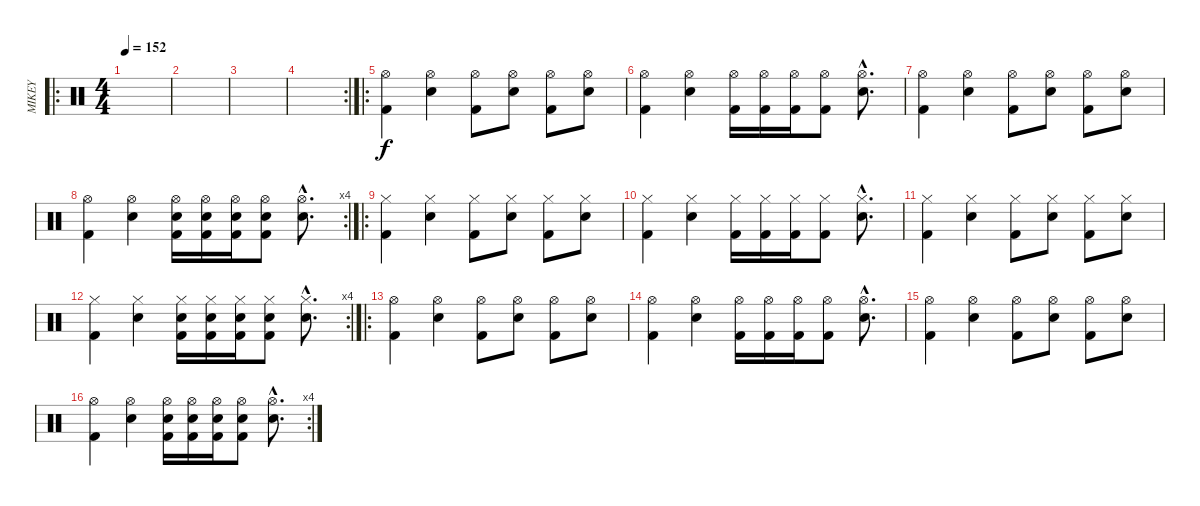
\track ("MIKEY" "MIKEY") {instrument percussion}
\staff {score}
\articulation defaults
\ro
\ts (4 4)
\tempo 152
\clef neutral
\ks c
|
|
|
\rc 2
|
\ro
("Hi-Hat (open)" "Kick (hit) 2").4 ("Hi-Hat (open)" "Electric Snare (hit)").4 ("Hi-Hat (open)" "Kick (hit) 2").8 ("Hi-Hat (open)" "Electric Snare (hit)").8 ("Hi-Hat (open)" "Kick (hit) 2").8 ("Hi-Hat (open)" "Electric Snare (hit)").8 |
("Hi-Hat (open)" "Kick (hit) 2").4 ("Hi-Hat (open)" "Electric Snare (hit)").4 ("Hi-Hat (open)" "Kick (hit) 2").16 ("Hi-Hat (open)" "Kick (hit) 2").16 ("Hi-Hat (open)" "Kick (hit) 2").16 ("Hi-Hat (open)" "Kick (hit) 2").8 ("Hi-Hat (open)"{hac} "Electric Snare (hit)"{hac}).8{d} |
("Hi-Hat (open)" "Kick (hit) 2").4 ("Hi-Hat (open)" "Electric Snare (hit)").4 ("Hi-Hat (open)" "Kick (hit) 2").8 ("Hi-Hat (open)" "Electric Snare (hit)").8 ("Hi-Hat (open)" "Kick (hit) 2").8 ("Hi-Hat (open)" "Electric Snare (hit)").8 |
\rc 4
("Hi-Hat (open)" "Kick (hit) 2").4 ("Hi-Hat (open)" "Electric Snare (hit)").4 ("Kick (hit) 2" "Hi-Hat (open)" "Electric Snare (hit)").16 ("Kick (hit) 2" "Hi-Hat (open)" "Electric Snare (hit)").16 ("Kick (hit) 2" "Hi-Hat (open)" "Electric Snare (hit)").16 ("Kick (hit) 2" "Hi-Hat (open)" "Electric Snare (hit)").8 ("Hi-Hat (open)"{hac} "Electric Snare (hit)"{hac}).8{d} |
\ro
("Hi-Hat (closed)" "Kick (hit) 2").4 ("Hi-Hat (closed)" "Electric Snare (hit)").4 ("Hi-Hat (closed)" "Kick (hit) 2").8 ("Hi-Hat (closed)" "Electric Snare (hit)").8 ("Hi-Hat (closed)" "Kick (hit) 2").8 ("Hi-Hat (closed)" "Electric Snare (hit)").8 |
("Hi-Hat (closed)" "Kick (hit) 2").4 ("Hi-Hat (closed)" "Electric Snare (hit)").4 ("Hi-Hat (closed)" "Kick (hit) 2").16 ("Hi-Hat (closed)" "Kick (hit) 2").16 ("Hi-Hat (closed)" "Kick (hit) 2").16 ("Hi-Hat (closed)" "Kick (hit) 2").8 ("Hi-Hat (closed)"{hac} "Electric Snare (hit)"{hac}).8{d} |
("Hi-Hat (closed)" "Kick (hit) 2").4 ("Hi-Hat (closed)" "Electric Snare (hit)").4 ("Hi-Hat (closed)" "Kick (hit) 2").8 ("Hi-Hat (closed)" "Electric Snare (hit)").8 ("Hi-Hat (closed)" "Kick (hit) 2").8 ("Hi-Hat (closed)" "Electric Snare (hit)").8 |
\rc 4
("Hi-Hat (closed)" "Kick (hit) 2").4 ("Hi-Hat (closed)" "Electric Snare (hit)").4 ("Kick (hit) 2" "Hi-Hat (closed)" "Electric Snare (hit)").16 ("Kick (hit) 2" "Hi-Hat (closed)" "Electric Snare (hit)").16 ("Kick (hit) 2" "Hi-Hat (closed)" "Electric Snare (hit)").16 ("Kick (hit) 2" "Hi-Hat (closed)" "Electric Snare (hit)").8 ("Hi-Hat (closed)"{hac} "Electric Snare (hit)"{hac}).8{d} |
\ro
("Hi-Hat (open)" "Kick (hit) 2").4 ("Hi-Hat (open)" "Electric Snare (hit)").4 ("Hi-Hat (open)" "Kick (hit) 2").8 ("Hi-Hat (open)" "Electric Snare (hit)").8 ("Hi-Hat (open)" "Kick (hit) 2").8 ("Hi-Hat (open)" "Electric Snare (hit)").8 |
("Hi-Hat (open)" "Kick (hit) 2").4 ("Hi-Hat (open)" "Electric Snare (hit)").4 ("Hi-Hat (open)" "Kick (hit) 2").16 ("Hi-Hat (open)" "Kick (hit) 2").16 ("Hi-Hat (open)" "Kick (hit) 2").16 ("Hi-Hat (open)" "Kick (hit) 2").8 ("Hi-Hat (open)"{hac} "Electric Snare (hit)"{hac}).8{d} |
("Hi-Hat (open)" "Kick (hit) 2").4 ("Hi-Hat (open)" "Electric Snare (hit)").4 ("Hi-Hat (open)" "Kick (hit) 2").8 ("Hi-Hat (open)" "Electric Snare (hit)").8 ("Hi-Hat (open)" "Kick (hit) 2").8 ("Hi-Hat (open)" "Electric Snare (hit)").8 |
\rc 4
("Hi-Hat (open)" "Kick (hit) 2").4 ("Hi-Hat (open)" "Electric Snare (hit)").4 ("Kick (hit) 2" "Hi-Hat (open)" "Electric Snare (hit)").16 ("Kick (hit) 2" "Hi-Hat (open)" "Electric Snare (hit)").16 ("Kick (hit) 2" "Hi-Hat (open)" "Electric Snare (hit)").16 ("Kick (hit) 2" "Hi-Hat (open)" "Electric Snare (hit)").8 ("Hi-Hat (open)"{hac} "Electric Snare (hit)"{hac}).8{d}
